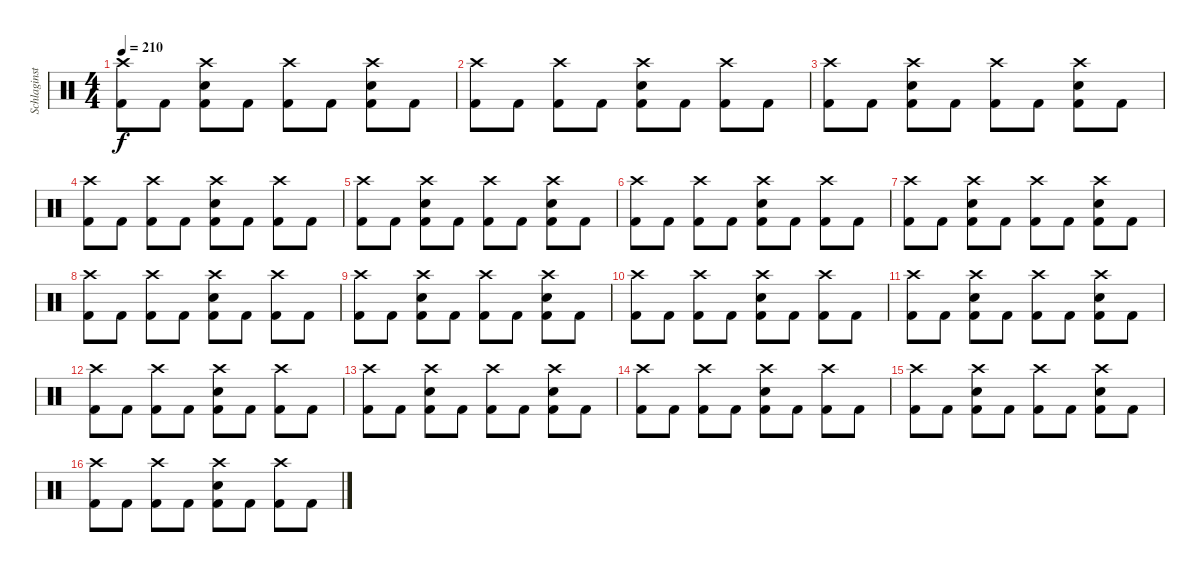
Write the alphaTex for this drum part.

\track ("Schlaginstrumente - Auswahl" "Schlaginst") {instrument percussion}
\staff {score}
\articulation defaults
\ts (4 4)
\tempo 210
\clef neutral
\ks c
("Crash high (hit)" "Kick (hit) 2").8{dy f} "Kick (hit) 2".8 ("Crash high (hit)" "Snare (hit) 2" "Kick (hit) 2").8 "Kick (hit) 2".8 ("Crash high (hit)" "Kick (hit) 2").8 "Kick (hit) 2".8 ("Crash high (hit)" "Snare (hit) 2" "Kick (hit) 2").8 "Kick (hit) 2".8 |
("Crash high (hit)" "Kick (hit) 2").8 "Kick (hit) 2".8 ("Crash high (hit)" "Kick (hit) 2").8 "Kick (hit) 2".8 ("Crash high (hit)" "Snare (hit) 2" "Kick (hit) 2").8 "Kick (hit) 2".8 ("Crash high (hit)" "Kick (hit) 2").8 "Kick (hit) 2".8 |
("Crash high (hit)" "Kick (hit) 2").8 "Kick (hit) 2".8 ("Crash high (hit)" "Snare (hit) 2" "Kick (hit) 2").8 "Kick (hit) 2".8 ("Crash high (hit)" "Kick (hit) 2").8 "Kick (hit) 2".8 ("Crash high (hit)" "Snare (hit) 2" "Kick (hit) 2").8 "Kick (hit) 2".8 |
("Crash high (hit)" "Kick (hit) 2").8 "Kick (hit) 2".8 ("Crash high (hit)" "Kick (hit) 2").8 "Kick (hit) 2".8 ("Crash high (hit)" "Snare (hit) 2" "Kick (hit) 2").8 "Kick (hit) 2".8 ("Crash high (hit)" "Kick (hit) 2").8 "Kick (hit) 2".8 |
("Crash high (hit)" "Kick (hit) 2").8 "Kick (hit) 2".8 ("Crash high (hit)" "Snare (hit) 2" "Kick (hit) 2").8 "Kick (hit) 2".8 ("Crash high (hit)" "Kick (hit) 2").8 "Kick (hit) 2".8 ("Crash high (hit)" "Snare (hit) 2" "Kick (hit) 2").8 "Kick (hit) 2".8 |
("Crash high (hit)" "Kick (hit) 2").8 "Kick (hit) 2".8 ("Crash high (hit)" "Kick (hit) 2").8 "Kick (hit) 2".8 ("Crash high (hit)" "Snare (hit) 2" "Kick (hit) 2").8 "Kick (hit) 2".8 ("Crash high (hit)" "Kick (hit) 2").8 "Kick (hit) 2".8 |
("Crash high (hit)" "Kick (hit) 2").8 "Kick (hit) 2".8 ("Crash high (hit)" "Snare (hit) 2" "Kick (hit) 2").8 "Kick (hit) 2".8 ("Crash high (hit)" "Kick (hit) 2").8 "Kick (hit) 2".8 ("Crash high (hit)" "Snare (hit) 2" "Kick (hit) 2").8 "Kick (hit) 2".8 |
("Crash high (hit)" "Kick (hit) 2").8 "Kick (hit) 2".8 ("Crash high (hit)" "Kick (hit) 2").8 "Kick (hit) 2".8 ("Crash high (hit)" "Snare (hit) 2" "Kick (hit) 2").8 "Kick (hit) 2".8 ("Crash high (hit)" "Kick (hit) 2").8 "Kick (hit) 2".8 |
("Crash high (hit)" "Kick (hit) 2").8 "Kick (hit) 2".8 ("Crash high (hit)" "Snare (hit) 2" "Kick (hit) 2").8 "Kick (hit) 2".8 ("Crash high (hit)" "Kick (hit) 2").8 "Kick (hit) 2".8 ("Crash high (hit)" "Snare (hit) 2" "Kick (hit) 2").8 "Kick (hit) 2".8 |
("Crash high (hit)" "Kick (hit) 2").8 "Kick (hit) 2".8 ("Crash high (hit)" "Kick (hit) 2").8 "Kick (hit) 2".8 ("Crash high (hit)" "Snare (hit) 2" "Kick (hit) 2").8 "Kick (hit) 2".8 ("Crash high (hit)" "Kick (hit) 2").8 "Kick (hit) 2".8 |
("Crash high (hit)" "Kick (hit) 2").8 "Kick (hit) 2".8 ("Crash high (hit)" "Snare (hit) 2" "Kick (hit) 2").8 "Kick (hit) 2".8 ("Crash high (hit)" "Kick (hit) 2").8 "Kick (hit) 2".8 ("Crash high (hit)" "Snare (hit) 2" "Kick (hit) 2").8 "Kick (hit) 2".8 |
("Crash high (hit)" "Kick (hit) 2").8 "Kick (hit) 2".8 ("Crash high (hit)" "Kick (hit) 2").8 "Kick (hit) 2".8 ("Crash high (hit)" "Snare (hit) 2" "Kick (hit) 2").8 "Kick (hit) 2".8 ("Crash high (hit)" "Kick (hit) 2").8 "Kick (hit) 2".8 |
("Crash high (hit)" "Kick (hit) 2").8 "Kick (hit) 2".8 ("Crash high (hit)" "Snare (hit) 2" "Kick (hit) 2").8 "Kick (hit) 2".8 ("Crash high (hit)" "Kick (hit) 2").8 "Kick (hit) 2".8 ("Crash high (hit)" "Snare (hit) 2" "Kick (hit) 2").8 "Kick (hit) 2".8 |
("Crash high (hit)" "Kick (hit) 2").8 "Kick (hit) 2".8 ("Crash high (hit)" "Kick (hit) 2").8 "Kick (hit) 2".8 ("Crash high (hit)" "Snare (hit) 2" "Kick (hit) 2").8 "Kick (hit) 2".8 ("Crash high (hit)" "Kick (hit) 2").8 "Kick (hit) 2".8 |
("Crash high (hit)" "Kick (hit) 2").8 "Kick (hit) 2".8 ("Crash high (hit)" "Snare (hit) 2" "Kick (hit) 2").8 "Kick (hit) 2".8 ("Crash high (hit)" "Kick (hit) 2").8 "Kick (hit) 2".8 ("Crash high (hit)" "Snare (hit) 2" "Kick (hit) 2").8 "Kick (hit) 2".8 |
("Crash high (hit)" "Kick (hit) 2").8 "Kick (hit) 2".8 ("Crash high (hit)" "Kick (hit) 2").8 "Kick (hit) 2".8 ("Crash high (hit)" "Snare (hit) 2" "Kick (hit) 2").8 "Kick (hit) 2".8 ("Crash high (hit)" "Kick (hit) 2").8 "Kick (hit) 2".8
